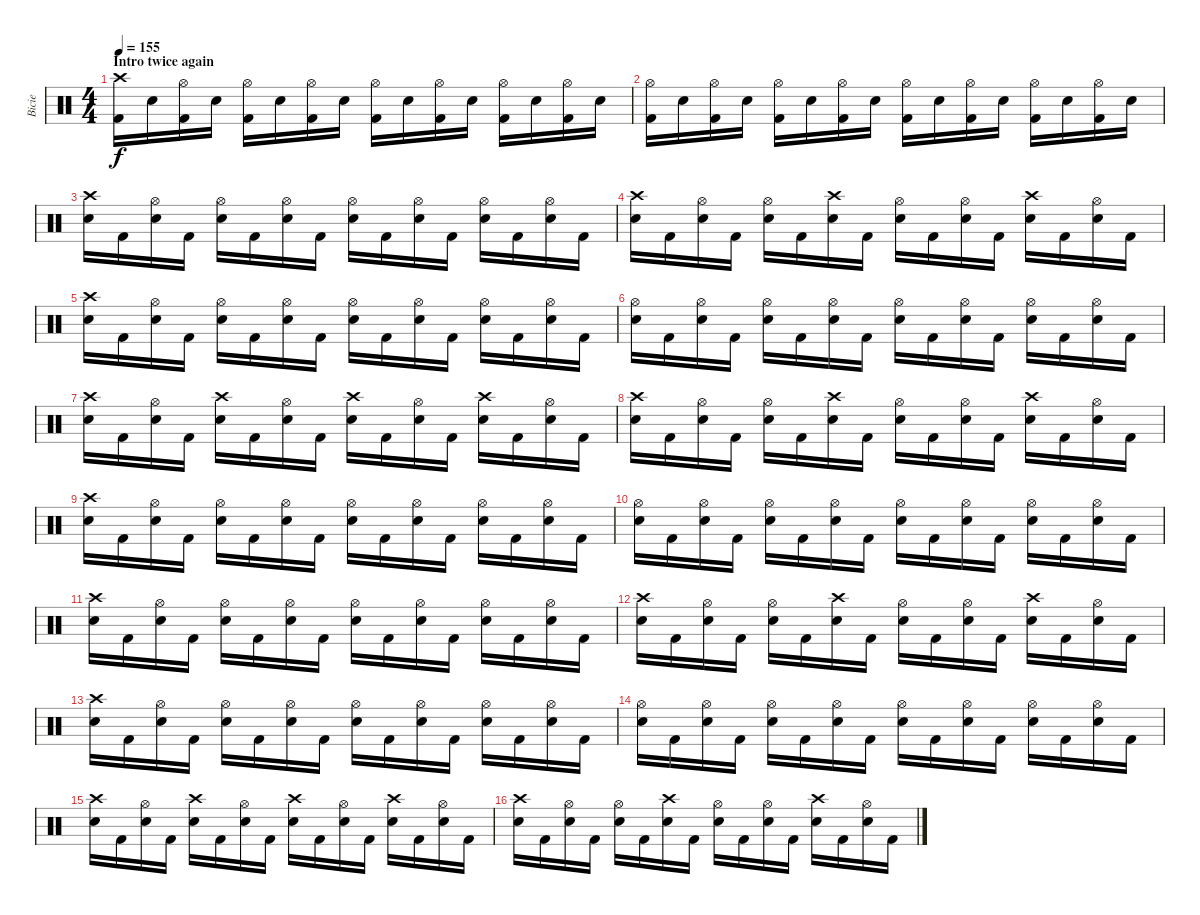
\track ("Bicie" "Bicie") {instrument percussion}
\staff {score}
\articulation defaults
\ts (4 4)
\section ("" "Intro twice again")
\tempo 155
\clef neutral
\ks c
("Crash high (hit)" "Kick (hit) 2").16{dy f} "Snare (hit) 2".16 ("Hi-Hat (open)" "Kick (hit) 2").16 "Snare (hit) 2".16 ("Hi-Hat (open)" "Kick (hit) 2").16 "Snare (hit) 2".16 ("Hi-Hat (open)" "Kick (hit) 2").16 "Snare (hit) 2".16 ("Hi-Hat (open)" "Kick (hit) 2").16 "Snare (hit) 2".16 ("Hi-Hat (open)" "Kick (hit) 2").16 "Snare (hit) 2".16 ("Hi-Hat (open)" "Kick (hit) 2").16 "Snare (hit) 2".16 ("Hi-Hat (open)" "Kick (hit) 2").16 "Snare (hit) 2".16 |
("Hi-Hat (open)" "Kick (hit) 2").16 "Snare (hit) 2".16 ("Hi-Hat (open)" "Kick (hit) 2").16 "Snare (hit) 2".16 ("Hi-Hat (open)" "Kick (hit) 2").16 "Snare (hit) 2".16 ("Hi-Hat (open)" "Kick (hit) 2").16 "Snare (hit) 2".16 ("Hi-Hat (open)" "Kick (hit) 2").16 "Snare (hit) 2".16 ("Hi-Hat (open)" "Kick (hit) 2").16 "Snare (hit) 2".16 ("Hi-Hat (open)" "Kick (hit) 2").16 "Snare (hit) 2".16 ("Hi-Hat (open)" "Kick (hit) 2").16 "Snare (hit) 2".16 |
("Crash high (hit)" "Snare (hit) 2").16 "Kick (hit) 2".16 ("Hi-Hat (open)" "Snare (hit) 2").16 "Kick (hit) 2".16 ("Hi-Hat (open)" "Snare (hit) 2").16 "Kick (hit) 2".16 ("Hi-Hat (open)" "Snare (hit) 2").16 "Kick (hit) 2".16 ("Hi-Hat (open)" "Snare (hit) 2").16 "Kick (hit) 2".16 ("Hi-Hat (open)" "Snare (hit) 2").16 "Kick (hit) 2".16 ("Hi-Hat (open)" "Snare (hit) 2").16 "Kick (hit) 2".16 ("Hi-Hat (open)" "Snare (hit) 2").16 "Kick (hit) 2".16 |
("Crash high (hit)" "Snare (hit) 2").16 "Kick (hit) 2".16 ("Hi-Hat (open)" "Snare (hit) 2").16 "Kick (hit) 2".16 ("Hi-Hat (open)" "Snare (hit) 2").16 "Kick (hit) 2".16 ("Crash high (hit)" "Snare (hit) 2").16 "Kick (hit) 2".16 ("Hi-Hat (open)" "Snare (hit) 2").16 "Kick (hit) 2".16 ("Hi-Hat (open)" "Snare (hit) 2").16 "Kick (hit) 2".16 ("Crash high (hit)" "Snare (hit) 2").16 "Kick (hit) 2".16 ("Hi-Hat (open)" "Snare (hit) 2").16 "Kick (hit) 2".16 |
("Crash high (hit)" "Snare (hit) 2").16 "Kick (hit) 2".16 ("Hi-Hat (open)" "Snare (hit) 2").16 "Kick (hit) 2".16 ("Hi-Hat (open)" "Snare (hit) 2").16 "Kick (hit) 2".16 ("Hi-Hat (open)" "Snare (hit) 2").16 "Kick (hit) 2".16 ("Hi-Hat (open)" "Snare (hit) 2").16 "Kick (hit) 2".16 ("Hi-Hat (open)" "Snare (hit) 2").16 "Kick (hit) 2".16 ("Hi-Hat (open)" "Snare (hit) 2").16 "Kick (hit) 2".16 ("Hi-Hat (open)" "Snare (hit) 2").16 "Kick (hit) 2".16 |
("Hi-Hat (open)" "Snare (hit) 2").16 "Kick (hit) 2".16 ("Hi-Hat (open)" "Snare (hit) 2").16 "Kick (hit) 2".16 ("Hi-Hat (open)" "Snare (hit) 2").16 "Kick (hit) 2".16 ("Hi-Hat (open)" "Snare (hit) 2").16 "Kick (hit) 2".16 ("Hi-Hat (open)" "Snare (hit) 2").16 "Kick (hit) 2".16 ("Hi-Hat (open)" "Snare (hit) 2").16 "Kick (hit) 2".16 ("Hi-Hat (open)" "Snare (hit) 2").16 "Kick (hit) 2".16 ("Hi-Hat (open)" "Snare (hit) 2").16 "Kick (hit) 2".16 |
("Crash high (hit)" "Snare (hit) 2").16 "Kick (hit) 2".16 ("Hi-Hat (open)" "Snare (hit) 2").16 "Kick (hit) 2".16 ("Crash high (hit)" "Snare (hit) 2").16 "Kick (hit) 2".16 ("Hi-Hat (open)" "Snare (hit) 2").16 "Kick (hit) 2".16 ("Crash high (hit)" "Snare (hit) 2").16 "Kick (hit) 2".16 ("Hi-Hat (open)" "Snare (hit) 2").16 "Kick (hit) 2".16 ("Crash high (hit)" "Snare (hit) 2").16 "Kick (hit) 2".16 ("Hi-Hat (open)" "Snare (hit) 2").16 "Kick (hit) 2".16 |
("Crash high (hit)" "Snare (hit) 2").16 "Kick (hit) 2".16 ("Hi-Hat (open)" "Snare (hit) 2").16 "Kick (hit) 2".16 ("Hi-Hat (open)" "Snare (hit) 2").16 "Kick (hit) 2".16 ("Crash high (hit)" "Snare (hit) 2").16 "Kick (hit) 2".16 ("Hi-Hat (open)" "Snare (hit) 2").16 "Kick (hit) 2".16 ("Hi-Hat (open)" "Snare (hit) 2").16 "Kick (hit) 2".16 ("Crash high (hit)" "Snare (hit) 2").16 "Kick (hit) 2".16 ("Hi-Hat (open)" "Snare (hit) 2").16 "Kick (hit) 2".16 |
("Crash high (hit)" "Snare (hit) 2").16 "Kick (hit) 2".16 ("Hi-Hat (open)" "Snare (hit) 2").16 "Kick (hit) 2".16 ("Hi-Hat (open)" "Snare (hit) 2").16 "Kick (hit) 2".16 ("Hi-Hat (open)" "Snare (hit) 2").16 "Kick (hit) 2".16 ("Hi-Hat (open)" "Snare (hit) 2").16 "Kick (hit) 2".16 ("Hi-Hat (open)" "Snare (hit) 2").16 "Kick (hit) 2".16 ("Hi-Hat (open)" "Snare (hit) 2").16 "Kick (hit) 2".16 ("Hi-Hat (open)" "Snare (hit) 2").16 "Kick (hit) 2".16 |
("Hi-Hat (open)" "Snare (hit) 2").16 "Kick (hit) 2".16 ("Hi-Hat (open)" "Snare (hit) 2").16 "Kick (hit) 2".16 ("Hi-Hat (open)" "Snare (hit) 2").16 "Kick (hit) 2".16 ("Hi-Hat (open)" "Snare (hit) 2").16 "Kick (hit) 2".16 ("Hi-Hat (open)" "Snare (hit) 2").16 "Kick (hit) 2".16 ("Hi-Hat (open)" "Snare (hit) 2").16 "Kick (hit) 2".16 ("Hi-Hat (open)" "Snare (hit) 2").16 "Kick (hit) 2".16 ("Hi-Hat (open)" "Snare (hit) 2").16 "Kick (hit) 2".16 |
("Crash high (hit)" "Snare (hit) 2").16 "Kick (hit) 2".16 ("Hi-Hat (open)" "Snare (hit) 2").16 "Kick (hit) 2".16 ("Hi-Hat (open)" "Snare (hit) 2").16 "Kick (hit) 2".16 ("Hi-Hat (open)" "Snare (hit) 2").16 "Kick (hit) 2".16 ("Hi-Hat (open)" "Snare (hit) 2").16 "Kick (hit) 2".16 ("Hi-Hat (open)" "Snare (hit) 2").16 "Kick (hit) 2".16 ("Hi-Hat (open)" "Snare (hit) 2").16 "Kick (hit) 2".16 ("Hi-Hat (open)" "Snare (hit) 2").16 "Kick (hit) 2".16 |
("Crash high (hit)" "Snare (hit) 2").16 "Kick (hit) 2".16 ("Hi-Hat (open)" "Snare (hit) 2").16 "Kick (hit) 2".16 ("Hi-Hat (open)" "Snare (hit) 2").16 "Kick (hit) 2".16 ("Crash high (hit)" "Snare (hit) 2").16 "Kick (hit) 2".16 ("Hi-Hat (open)" "Snare (hit) 2").16 "Kick (hit) 2".16 ("Hi-Hat (open)" "Snare (hit) 2").16 "Kick (hit) 2".16 ("Crash high (hit)" "Snare (hit) 2").16 "Kick (hit) 2".16 ("Hi-Hat (open)" "Snare (hit) 2").16 "Kick (hit) 2".16 |
("Crash high (hit)" "Snare (hit) 2").16 "Kick (hit) 2".16 ("Hi-Hat (open)" "Snare (hit) 2").16 "Kick (hit) 2".16 ("Hi-Hat (open)" "Snare (hit) 2").16 "Kick (hit) 2".16 ("Hi-Hat (open)" "Snare (hit) 2").16 "Kick (hit) 2".16 ("Hi-Hat (open)" "Snare (hit) 2").16 "Kick (hit) 2".16 ("Hi-Hat (open)" "Snare (hit) 2").16 "Kick (hit) 2".16 ("Hi-Hat (open)" "Snare (hit) 2").16 "Kick (hit) 2".16 ("Hi-Hat (open)" "Snare (hit) 2").16 "Kick (hit) 2".16 |
("Hi-Hat (open)" "Snare (hit) 2").16 "Kick (hit) 2".16 ("Hi-Hat (open)" "Snare (hit) 2").16 "Kick (hit) 2".16 ("Hi-Hat (open)" "Snare (hit) 2").16 "Kick (hit) 2".16 ("Hi-Hat (open)" "Snare (hit) 2").16 "Kick (hit) 2".16 ("Hi-Hat (open)" "Snare (hit) 2").16 "Kick (hit) 2".16 ("Hi-Hat (open)" "Snare (hit) 2").16 "Kick (hit) 2".16 ("Hi-Hat (open)" "Snare (hit) 2").16 "Kick (hit) 2".16 ("Hi-Hat (open)" "Snare (hit) 2").16 "Kick (hit) 2".16 |
("Crash high (hit)" "Snare (hit) 2").16 "Kick (hit) 2".16 ("Hi-Hat (open)" "Snare (hit) 2").16 "Kick (hit) 2".16 ("Crash high (hit)" "Snare (hit) 2").16 "Kick (hit) 2".16 ("Hi-Hat (open)" "Snare (hit) 2").16 "Kick (hit) 2".16 ("Crash high (hit)" "Snare (hit) 2").16 "Kick (hit) 2".16 ("Hi-Hat (open)" "Snare (hit) 2").16 "Kick (hit) 2".16 ("Crash high (hit)" "Snare (hit) 2").16 "Kick (hit) 2".16 ("Hi-Hat (open)" "Snare (hit) 2").16 "Kick (hit) 2".16 |
("Crash high (hit)" "Snare (hit) 2").16 "Kick (hit) 2".16 ("Hi-Hat (open)" "Snare (hit) 2").16 "Kick (hit) 2".16 ("Hi-Hat (open)" "Snare (hit) 2").16 "Kick (hit) 2".16 ("Crash high (hit)" "Snare (hit) 2").16 "Kick (hit) 2".16 ("Hi-Hat (open)" "Snare (hit) 2").16 "Kick (hit) 2".16 ("Hi-Hat (open)" "Snare (hit) 2").16 "Kick (hit) 2".16 ("Crash high (hit)" "Snare (hit) 2").16 "Kick (hit) 2".16 ("Hi-Hat (open)" "Snare (hit) 2").16 "Kick (hit) 2".16
